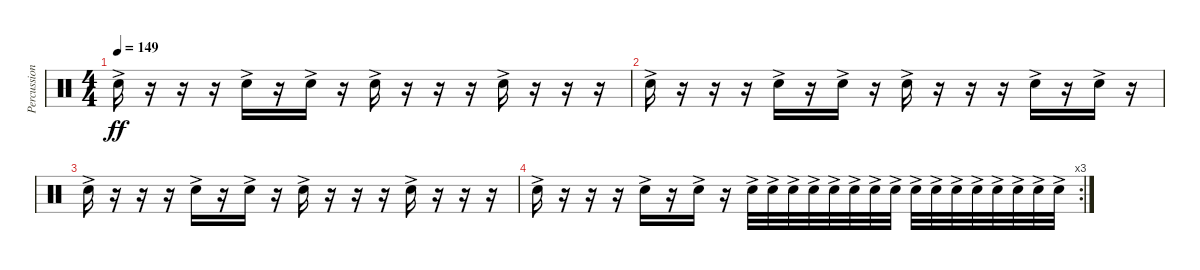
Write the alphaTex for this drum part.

\track ("Percussion" "Percussion") {instrument percussion}
\staff {score}
\articulation defaults
\ts (4 4)
\tempo 149
\clef neutral
\ks c "Snare (hit) 2"{ac}.16{dy ff}
r.16 r.16 r.16 "Snare (hit) 2"{ac}.16 r.16 "Snare (hit) 2"{ac}.16 r.16 "Snare (hit) 2"{ac}.16 r.16 r.16 r.16 "Snare (hit) 2"{ac}.16 r.16 r.16 r.16 |
"Snare (hit) 2"{ac}.16 r.16 r.16 r.16 "Snare (hit) 2"{ac}.16 r.16 "Snare (hit) 2"{ac}.16 r.16 "Snare (hit) 2"{ac}.16 r.16 r.16 r.16 "Snare (hit) 2"{ac}.16 r.16 "Snare (hit) 2"{ac}.16 r.16 |
"Snare (hit) 2"{ac}.16 r.16 r.16 r.16 "Snare (hit) 2"{ac}.16 r.16 "Snare (hit) 2"{ac}.16 r.16 "Snare (hit) 2"{ac}.16 r.16 r.16 r.16 "Snare (hit) 2"{ac}.16 r.16 r.16 r.16 |
\rc 3 "Snare (hit) 2"{ac}.16
r.16 r.16 r.16 "Snare (hit) 2"{ac}.16 r.16 "Snare (hit) 2"{ac}.16 r.16 "Snare (hit) 2"{ac}.32 "Snare (hit) 2"{ac}.32 "Snare (hit) 2"{ac}.32 "Snare (hit) 2"{ac}.32 "Snare (hit) 2"{ac}.32 "Snare (hit) 2"{ac}.32 "Snare (hit) 2"{ac}.32 "Snare (hit) 2"{ac}.32 "Snare (hit) 2"{ac}.32 "Snare (hit) 2"{ac}.32 "Snare (hit) 2"{ac}.32 "Snare (hit) 2"{ac}.32 "Snare (hit) 2"{ac}.32 "Snare (hit) 2"{ac}.32 "Snare (hit) 2"{ac}.32 "Snare (hit) 2"{ac}.32
